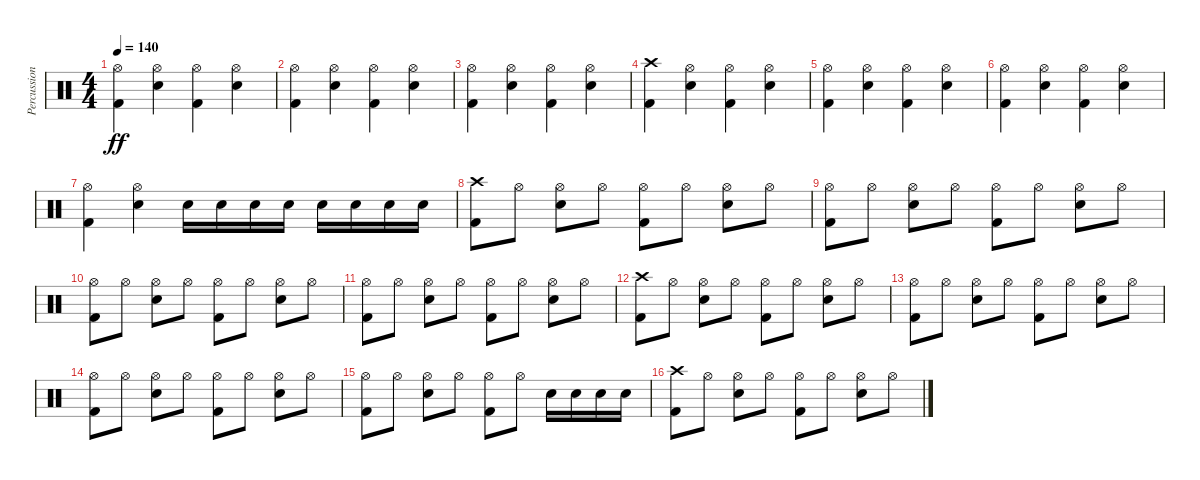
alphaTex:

\track ("Percussion" "Percussion") {instrument percussion}
\staff {score}
\articulation defaults
\ts (4 4)
\tempo 140
\clef neutral
\ks c
("Hi-Hat (open)" "Kick (hit) 2").4{dy ff} ("Hi-Hat (open)" "Snare (hit) 2").4 ("Hi-Hat (open)" "Kick (hit) 2").4 ("Hi-Hat (open)" "Snare (hit) 2").4 |
("Hi-Hat (open)" "Kick (hit) 2").4 ("Hi-Hat (open)" "Snare (hit) 2").4 ("Hi-Hat (open)" "Kick (hit) 2").4 ("Hi-Hat (open)" "Snare (hit) 2").4 |
("Hi-Hat (open)" "Kick (hit) 2").4 ("Hi-Hat (open)" "Snare (hit) 2").4 ("Hi-Hat (open)" "Kick (hit) 2").4 ("Hi-Hat (open)" "Snare (hit) 2").4 |
("Crash high (hit)" "Kick (hit) 2").4 ("Hi-Hat (open)" "Snare (hit) 2").4 ("Hi-Hat (open)" "Kick (hit) 2").4 ("Hi-Hat (open)" "Snare (hit) 2").4 |
("Hi-Hat (open)" "Kick (hit) 2").4 ("Hi-Hat (open)" "Snare (hit) 2").4 ("Hi-Hat (open)" "Kick (hit) 2").4 ("Hi-Hat (open)" "Snare (hit) 2").4 |
("Hi-Hat (open)" "Kick (hit) 2").4 ("Hi-Hat (open)" "Snare (hit) 2").4 ("Hi-Hat (open)" "Kick (hit) 2").4 ("Hi-Hat (open)" "Snare (hit) 2").4 |
("Hi-Hat (open)" "Kick (hit) 2").4 ("Hi-Hat (open)" "Snare (hit) 2").4 "Snare (hit) 2".16 "Snare (hit) 2".16 "Snare (hit) 2".16 "Snare (hit) 2".16 "Snare (hit) 2".16 "Snare (hit) 2".16 "Snare (hit) 2".16 "Snare (hit) 2".16 |
("Crash high (hit)" "Kick (hit) 2").8 "Hi-Hat (open)".8 ("Hi-Hat (open)" "Snare (hit) 2").8 "Hi-Hat (open)".8 ("Hi-Hat (open)" "Kick (hit) 2").8 "Hi-Hat (open)".8 ("Hi-Hat (open)" "Snare (hit) 2").8 "Hi-Hat (open)".8 |
("Hi-Hat (open)" "Kick (hit) 2").8 "Hi-Hat (open)".8 ("Hi-Hat (open)" "Snare (hit) 2").8 "Hi-Hat (open)".8 ("Hi-Hat (open)" "Kick (hit) 2").8 "Hi-Hat (open)".8 ("Hi-Hat (open)" "Snare (hit) 2").8 "Hi-Hat (open)".8 |
("Hi-Hat (open)" "Kick (hit) 2").8 "Hi-Hat (open)".8 ("Hi-Hat (open)" "Snare (hit) 2").8 "Hi-Hat (open)".8 ("Hi-Hat (open)" "Kick (hit) 2").8 "Hi-Hat (open)".8 ("Hi-Hat (open)" "Snare (hit) 2").8 "Hi-Hat (open)".8 |
("Hi-Hat (open)" "Kick (hit) 2").8 "Hi-Hat (open)".8 ("Hi-Hat (open)" "Snare (hit) 2").8 "Hi-Hat (open)".8 ("Hi-Hat (open)" "Kick (hit) 2").8 "Hi-Hat (open)".8 ("Hi-Hat (open)" "Snare (hit) 2").8 "Hi-Hat (open)".8 |
("Crash high (hit)" "Kick (hit) 2").8 "Hi-Hat (open)".8 ("Hi-Hat (open)" "Snare (hit) 2").8 "Hi-Hat (open)".8 ("Hi-Hat (open)" "Kick (hit) 2").8 "Hi-Hat (open)".8 ("Hi-Hat (open)" "Snare (hit) 2").8 "Hi-Hat (open)".8 |
("Hi-Hat (open)" "Kick (hit) 2").8 "Hi-Hat (open)".8 ("Hi-Hat (open)" "Snare (hit) 2").8 "Hi-Hat (open)".8 ("Hi-Hat (open)" "Kick (hit) 2").8 "Hi-Hat (open)".8 ("Hi-Hat (open)" "Snare (hit) 2").8 "Hi-Hat (open)".8 |
("Hi-Hat (open)" "Kick (hit) 2").8 "Hi-Hat (open)".8 ("Hi-Hat (open)" "Snare (hit) 2").8 "Hi-Hat (open)".8 ("Hi-Hat (open)" "Kick (hit) 2").8 "Hi-Hat (open)".8 ("Hi-Hat (open)" "Snare (hit) 2").8 "Hi-Hat (open)".8 |
("Hi-Hat (open)" "Kick (hit) 2").8 "Hi-Hat (open)".8 ("Hi-Hat (open)" "Snare (hit) 2").8 "Hi-Hat (open)".8 ("Hi-Hat (open)" "Kick (hit) 2").8 "Hi-Hat (open)".8 "Snare (hit) 2".16 "Snare (hit) 2".16 "Snare (hit) 2".16 "Snare (hit) 2".16 |
("Crash high (hit)" "Kick (hit) 2").8 "Hi-Hat (open)".8 ("Hi-Hat (open)" "Snare (hit) 2").8 "Hi-Hat (open)".8 ("Hi-Hat (open)" "Kick (hit) 2").8 "Hi-Hat (open)".8 ("Hi-Hat (open)" "Snare (hit) 2").8 "Hi-Hat (open)".8
